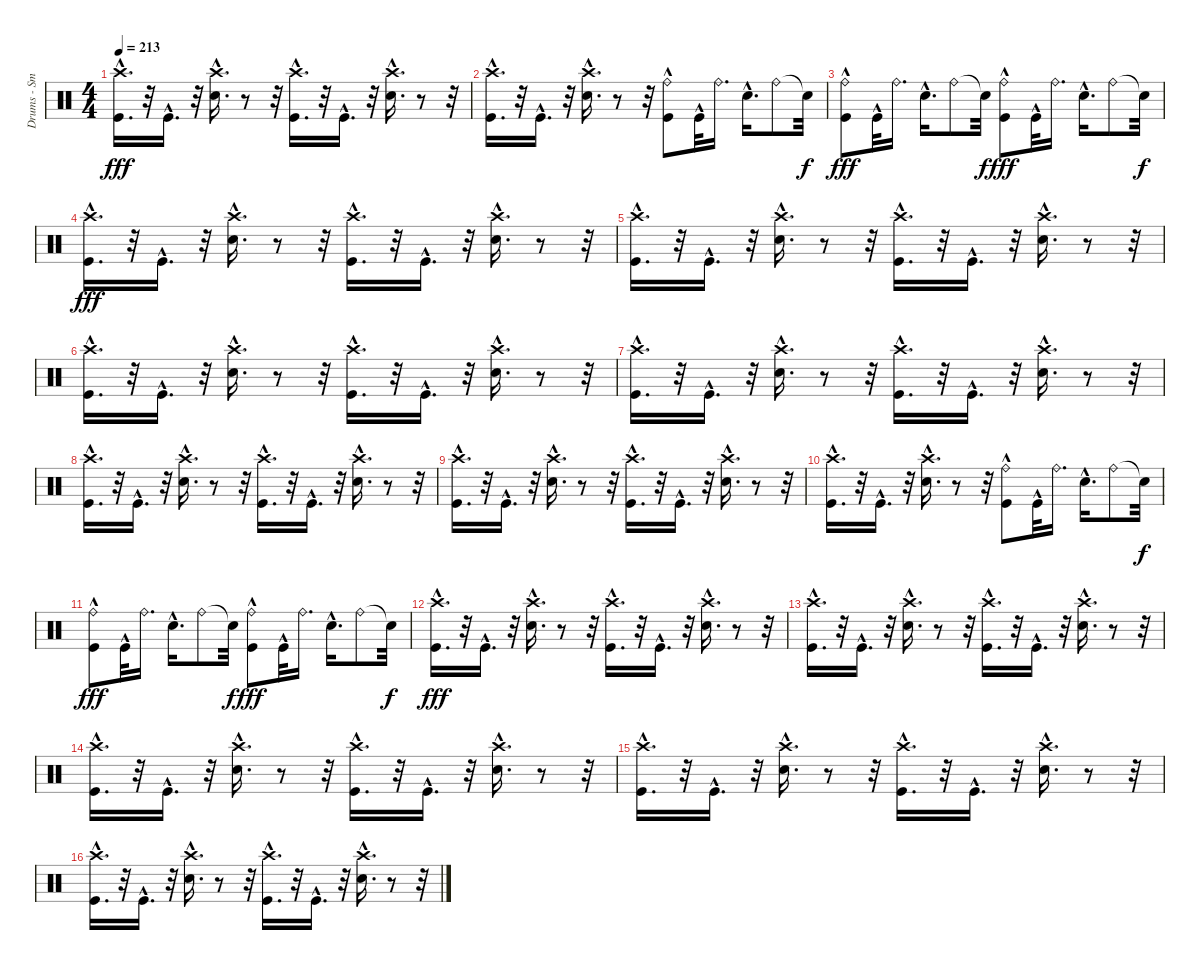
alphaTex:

\track ("Drums - Smelly" "Drums - Sm") {instrument percussion}
\staff {score}
\articulation defaults
\ts (4 4)
\tempo 213
\clef neutral
\ks c
("Crash high (hit)"{hac} "Kick (hit)"{hac}).16{d dy fff} r.32 "Kick (hit)"{hac}.16{d} r.32 ("Crash high (hit)"{hac} "Electric Snare (hit)"{hac}).16{d} r.8 r.32 ("Crash high (hit)"{hac} "Kick (hit)"{hac}).16{d} r.32 "Kick (hit)"{hac}.16{d} r.32 ("Electric Snare (hit)"{hac} "Crash high (hit)"{hac}).16{d} r.8 r.32 |
("Crash high (hit)"{hac} "Kick (hit)"{hac}).16{d} r.32 "Kick (hit)"{hac}.16{d} r.32 ("Crash high (hit)"{hac} "Electric Snare (hit)"{hac}).16{d} r.8 r.32 ("Kick (hit)"{hac} "Ride (bell)").8 "Kick (hit)"{hac}.32 "Ride (bell)".16{d} "Electric Snare (hit)"{hac}.16{d} "Ride (bell)".8 "Snare (hit)"{t}.32{dy f} |
("Ride (bell)" "Kick (hit)"{hac}).8{dy fff} "Kick (hit)"{hac}.32 "Ride (bell)".16{d} "Electric Snare (hit)"{hac}.16{d} "Ride (bell)".8 "Snare (hit)"{t}.32{dy f} ("Ride (bell)" "Kick (hit)"{hac}).8{dy fff} "Kick (hit)"{hac}.32 "Ride (bell)".16{d} "Electric Snare (hit)"{hac}.16{d} "Ride (bell)".8 "Snare (hit)"{t}.32{dy f} |
("Crash high (hit)"{hac} "Kick (hit)"{hac}).16{d dy fff} r.32 "Kick (hit)"{hac}.16{d} r.32 ("Crash high (hit)"{hac} "Electric Snare (hit)"{hac}).16{d} r.8 r.32 ("Kick (hit)"{hac} "Crash high (hit)"{hac}).16{d} r.32 "Kick (hit)"{hac}.16{d} r.32 ("Electric Snare (hit)"{hac} "Crash high (hit)"{hac}).16{d} r.8 r.32 |
("Crash high (hit)"{hac} "Kick (hit)"{hac}).16{d} r.32 "Kick (hit)"{hac}.16{d} r.32 ("Crash high (hit)"{hac} "Electric Snare (hit)"{hac}).16{d} r.8 r.32 ("Crash high (hit)"{hac} "Kick (hit)"{hac}).16{d} r.32 "Kick (hit)"{hac}.16{d} r.32 ("Electric Snare (hit)"{hac} "Crash high (hit)"{hac}).16{d} r.8 r.32 |
("Crash high (hit)"{hac} "Kick (hit)"{hac}).16{d} r.32 "Kick (hit)"{hac}.16{d} r.32 ("Crash high (hit)"{hac} "Electric Snare (hit)"{hac}).16{d} r.8 r.32 ("Kick (hit)"{hac} "Crash high (hit)"{hac}).16{d} r.32 "Kick (hit)"{hac}.16{d} r.32 ("Electric Snare (hit)"{hac} "Crash high (hit)"{hac}).16{d} r.8 r.32 |
("Crash high (hit)"{hac} "Kick (hit)"{hac}).16{d} r.32 "Kick (hit)"{hac}.16{d} r.32 ("Crash high (hit)"{hac} "Electric Snare (hit)"{hac}).16{d} r.8 r.32 ("Crash high (hit)"{hac} "Kick (hit)"{hac}).16{d} r.32 "Kick (hit)"{hac}.16{d} r.32 ("Electric Snare (hit)"{hac} "Crash high (hit)"{hac}).16{d} r.8 r.32 |
("Crash high (hit)"{hac} "Kick (hit)"{hac}).16{d} r.32 "Kick (hit)"{hac}.16{d} r.32 ("Crash high (hit)"{hac} "Electric Snare (hit)"{hac}).16{d} r.8 r.32 ("Kick (hit)"{hac} "Crash high (hit)"{hac}).16{d} r.32 "Kick (hit)"{hac}.16{d} r.32 ("Electric Snare (hit)"{hac} "Crash high (hit)"{hac}).16{d} r.8 r.32 |
("Crash high (hit)"{hac} "Kick (hit)"{hac}).16{d} r.32 "Kick (hit)"{hac}.16{d} r.32 ("Crash high (hit)"{hac} "Electric Snare (hit)"{hac}).16{d} r.8 r.32 ("Crash high (hit)"{hac} "Kick (hit)"{hac}).16{d} r.32 "Kick (hit)"{hac}.16{d} r.32 ("Electric Snare (hit)"{hac} "Crash high (hit)"{hac}).16{d} r.8 r.32 |
("Crash high (hit)"{hac} "Kick (hit)"{hac}).16{d} r.32 "Kick (hit)"{hac}.16{d} r.32 ("Crash high (hit)"{hac} "Electric Snare (hit)"{hac}).16{d} r.8 r.32 ("Kick (hit)"{hac} "Ride (bell)").8 "Kick (hit)"{hac}.32 "Ride (bell)".16{d} "Electric Snare (hit)"{hac}.16{d} "Ride (bell)".8 "Snare (hit)"{t}.32{dy f} |
("Ride (bell)" "Kick (hit)"{hac}).8{dy fff} "Kick (hit)"{hac}.32 "Ride (bell)".16{d} "Electric Snare (hit)"{hac}.16{d} "Ride (bell)".8 "Snare (hit)"{t}.32{dy f} ("Ride (bell)" "Kick (hit)"{hac}).8{dy fff} "Kick (hit)"{hac}.32 "Ride (bell)".16{d} "Electric Snare (hit)"{hac}.16{d} "Ride (bell)".8 "Snare (hit)"{t}.32{dy f} |
("Crash high (hit)"{hac} "Kick (hit)"{hac}).16{d dy fff} r.32 "Kick (hit)"{hac}.16{d} r.32 ("Crash high (hit)"{hac} "Electric Snare (hit)"{hac}).16{d} r.8 r.32 ("Kick (hit)"{hac} "Crash high (hit)"{hac}).16{d} r.32 "Kick (hit)"{hac}.16{d} r.32 ("Electric Snare (hit)"{hac} "Crash high (hit)"{hac}).16{d} r.8 r.32 |
("Crash high (hit)"{hac} "Kick (hit)"{hac}).16{d} r.32 "Kick (hit)"{hac}.16{d} r.32 ("Crash high (hit)"{hac} "Electric Snare (hit)"{hac}).16{d} r.8 r.32 ("Crash high (hit)"{hac} "Kick (hit)"{hac}).16{d} r.32 "Kick (hit)"{hac}.16{d} r.32 ("Electric Snare (hit)"{hac} "Crash high (hit)"{hac}).16{d} r.8 r.32 |
("Crash high (hit)"{hac} "Kick (hit)"{hac}).16{d} r.32 "Kick (hit)"{hac}.16{d} r.32 ("Crash high (hit)"{hac} "Electric Snare (hit)"{hac}).16{d} r.8 r.32 ("Kick (hit)"{hac} "Crash high (hit)"{hac}).16{d} r.32 "Kick (hit)"{hac}.16{d} r.32 ("Electric Snare (hit)"{hac} "Crash high (hit)"{hac}).16{d} r.8 r.32 |
("Crash high (hit)"{hac} "Kick (hit)"{hac}).16{d} r.32 "Kick (hit)"{hac}.16{d} r.32 ("Crash high (hit)"{hac} "Electric Snare (hit)"{hac}).16{d} r.8 r.32 ("Crash high (hit)"{hac} "Kick (hit)"{hac}).16{d} r.32 "Kick (hit)"{hac}.16{d} r.32 ("Electric Snare (hit)"{hac} "Crash high (hit)"{hac}).16{d} r.8 r.32 |
("Crash high (hit)"{hac} "Kick (hit)"{hac}).16{d} r.32 "Kick (hit)"{hac}.16{d} r.32 ("Crash high (hit)"{hac} "Electric Snare (hit)"{hac}).16{d} r.8 r.32 ("Kick (hit)"{hac} "Crash high (hit)"{hac}).16{d} r.32 "Kick (hit)"{hac}.16{d} r.32 ("Electric Snare (hit)"{hac} "Crash high (hit)"{hac}).16{d} r.8 r.32
